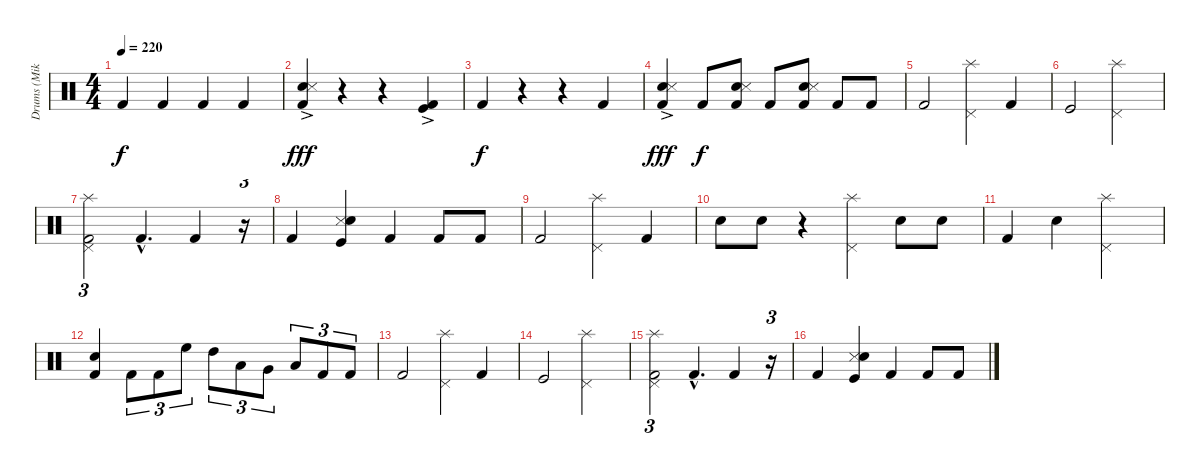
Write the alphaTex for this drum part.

\track ("Drums (Mike Justian)" "Drums (Mik") {instrument percussion}
\staff {score}
\articulation defaults
\ts (4 4)
\tempo 220
\clef neutral
\ks c "Kick (hit) 2".4{dy f} "Kick (hit) 2".4 "Kick (hit) 2".4 "Kick (hit) 2".4
|
("Electric Snare (hit)"{ac} "Kick (hit) 2"{ac} "Snare (side stick) 3"{ac}).4{dy fff} r.4 r.4 ("Kick (hit)"{ac} "Kick (hit) 2").4 |
"Kick (hit) 2".4{dy f} r.4 r.4 "Kick (hit) 2".4 |
("Electric Snare (hit)"{ac} "Kick (hit) 2"{ac} "Snare (side stick) 3"{ac}).4{dy fff} "Kick (hit) 2".8{dy f} ("Electric Snare (hit)" "Kick (hit) 2" "Snare (side stick) 3").8 "Kick (hit) 2".8 ("Electric Snare (hit)" "Snare (side stick) 3" "Kick (hit) 2").8 "Kick (hit) 2".8 "Kick (hit) 2".8 |
"Kick (hit) 2".2 ("Pedal Hi-Hat (hit)" "Splash (hit)").4 "Kick (hit) 2".4 |
"Kick (hit)".2 ("Pedal Hi-Hat (hit)" "Splash (hit)").2 |
("Pedal Hi-Hat (hit)" "Splash (hit)" "Kick (hit) 2").2{tu (3 2)} "Kick (hit) 2"{hac}.4{d} "Kick (hit) 2".4 r.16{tu (3 2)} |
"Kick (hit) 2".4 ("Snare (side stick) 3" "Electric Snare (hit)" "Kick (hit)").4 "Kick (hit) 2".4 "Kick (hit) 2".8 "Kick (hit) 2".8 |
"Kick (hit) 2".2 ("Pedal Hi-Hat (hit)" "Splash (hit)").4 "Kick (hit) 2".4 |
"Electric Snare (hit)".8 "Electric Snare (hit)".8 r.4 ("Pedal Hi-Hat (hit)" "Splash (hit)").4 "Electric Snare (hit)".8 "Electric Snare (hit)".8 |
"Kick (hit) 2".4 "Electric Snare (hit)".4 ("Pedal Hi-Hat (hit)" "Splash (hit)").2 |
("Electric Snare (hit)" "Kick (hit) 2").4 "Kick (hit) 2".8{tu (3 2)} "Kick (hit) 2".8{tu (3 2)} "High Floor Tom (hit)".8{tu (3 2)} "High Tom (hit)".8{tu (3 2)} "Low Tom (hit)".8{tu (3 2)} "Very Low Tom (hit)".8{tu (3 2)} "Low Floor Tom (hit)".8{tu (3 2)} "Kick (hit) 2".8{tu (3 2)} "Kick (hit) 2".8{tu (3 2)} |
"Kick (hit) 2".2 ("Pedal Hi-Hat (hit)" "Splash (hit)").4 "Kick (hit) 2".4 |
"Kick (hit)".2 ("Pedal Hi-Hat (hit)" "Splash (hit)").2 |
("Pedal Hi-Hat (hit)" "Splash (hit)" "Kick (hit) 2").2{tu (3 2)} "Kick (hit) 2"{hac}.4{d} "Kick (hit) 2".4 r.16{tu (3 2)} |
"Kick (hit) 2".4 ("Snare (side stick) 3" "Electric Snare (hit)" "Kick (hit)").4 "Kick (hit) 2".4 "Kick (hit) 2".8 "Kick (hit) 2".8
